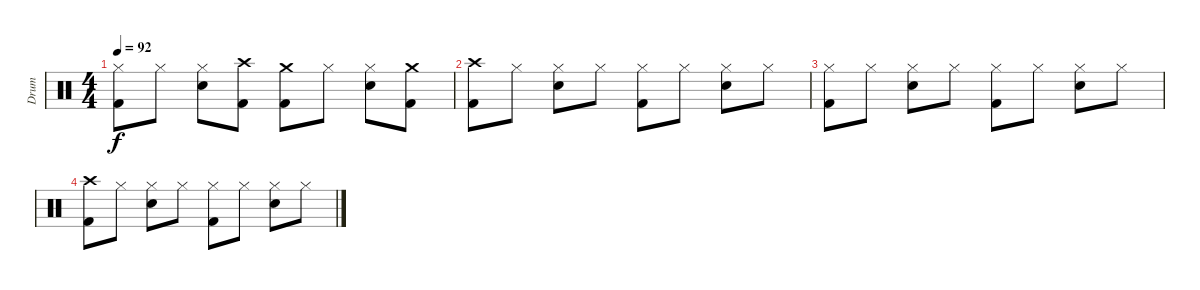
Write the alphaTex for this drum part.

\track ("Drum" "Drum") {instrument percussion}
\staff {score}
\articulation defaults
\ts (4 4)
\tempo 92
\clef neutral
\ks c
("Hi-Hat (closed)" "Kick (hit) 2").8{dy f} "Hi-Hat (closed)".8 ("Hi-Hat (closed)" "Snare (hit) 2").8 ("Crash high (hit)" "Kick (hit) 2").8 ("Crash medium (hit)" "Kick (hit) 2").8 "Hi-Hat (closed)".8 ("Hi-Hat (closed)" "Snare (hit) 2").8 ("Crash medium (hit)" "Kick (hit) 2").8 |
("Crash high (hit)" "Kick (hit) 2").8{volume 2} "Hi-Hat (closed)".8 ("Hi-Hat (closed)" "Snare (hit) 2").8 "Hi-Hat (closed)".8 ("Hi-Hat (closed)" "Kick (hit) 2").8 "Hi-Hat (closed)".8 ("Hi-Hat (closed)" "Snare (hit) 2").8 "Hi-Hat (closed)".8 |
("Hi-Hat (closed)" "Kick (hit) 2").8 "Hi-Hat (closed)".8 ("Hi-Hat (closed)" "Snare (hit) 2").8 "Hi-Hat (closed)".8 ("Hi-Hat (closed)" "Kick (hit) 2").8 "Hi-Hat (closed)".8 ("Hi-Hat (closed)" "Snare (hit) 2").8 "Hi-Hat (closed)".8 |
("Crash high (hit)" "Kick (hit) 2").8{volume 0} "Hi-Hat (closed)".8 ("Hi-Hat (closed)" "Snare (hit) 2").8 "Hi-Hat (closed)".8 ("Hi-Hat (closed)" "Kick (hit) 2").8 "Hi-Hat (closed)".8 ("Hi-Hat (closed)" "Snare (hit) 2").8 "Hi-Hat (closed)".8
